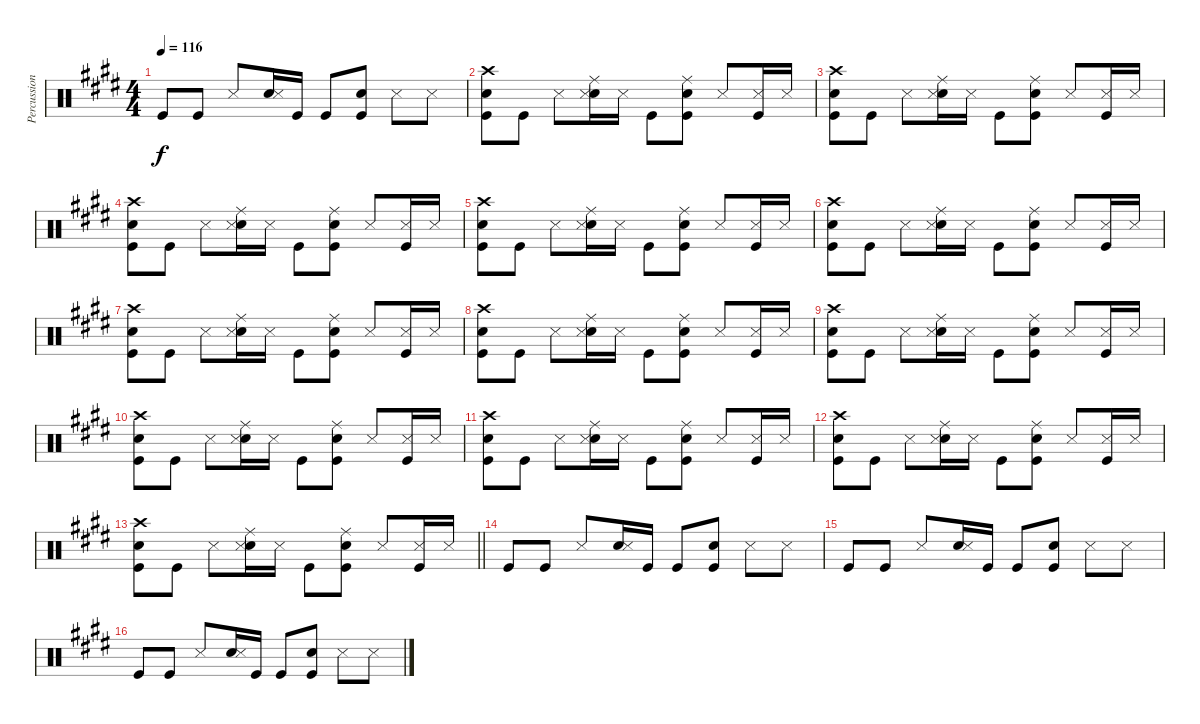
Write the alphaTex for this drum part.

\track ("Percussion" "Percussion") {instrument percussion}
\staff {score}
\articulation defaults
\ts (4 4)
\tempo 116
\clef neutral
\ks e "Kick (hit)".8{dy f} "Kick (hit)".8 "Snare (side stick) 3".8
("Electric Snare (hit)" "Snare (side stick) 3").16 "Kick (hit)".16 "Kick (hit)".8 ("Electric Snare (hit)" "Kick (hit)").8 "Snare (side stick) 3".8 "Snare (side stick) 3".8 |
("Crash high (hit)" "Electric Snare (hit)" "Kick (hit)").8 "Kick (hit)".8 "Snare (side stick) 3".8 ("Ride (middle)" "Electric Snare (hit)" "Snare (side stick) 3").16 "Snare (side stick) 3".16 "Kick (hit)".8 ("Ride (middle)" "Electric Snare (hit)" "Kick (hit)").8 "Snare (side stick) 3".8 ("Snare (side stick) 3" "Kick (hit)").16 "Snare (side stick) 3".16 |
("Crash high (hit)" "Electric Snare (hit)" "Kick (hit)").8 "Kick (hit)".8 "Snare (side stick) 3".8 ("Ride (middle)" "Electric Snare (hit)" "Snare (side stick) 3").16 "Snare (side stick) 3".16 "Kick (hit)".8 ("Ride (middle)" "Electric Snare (hit)" "Kick (hit)").8 "Snare (side stick) 3".8 ("Snare (side stick) 3" "Kick (hit)").16 "Snare (side stick) 3".16 |
("Crash high (hit)" "Electric Snare (hit)" "Kick (hit)").8 "Kick (hit)".8 "Snare (side stick) 3".8 ("Ride (middle)" "Electric Snare (hit)" "Snare (side stick) 3").16 "Snare (side stick) 3".16 "Kick (hit)".8 ("Ride (middle)" "Electric Snare (hit)" "Kick (hit)").8 "Snare (side stick) 3".8 ("Snare (side stick) 3" "Kick (hit)").16 "Snare (side stick) 3".16 |
("Crash high (hit)" "Electric Snare (hit)" "Kick (hit)").8 "Kick (hit)".8 "Snare (side stick) 3".8 ("Ride (middle)" "Electric Snare (hit)" "Snare (side stick) 3").16 "Snare (side stick) 3".16 "Kick (hit)".8 ("Ride (middle)" "Electric Snare (hit)" "Kick (hit)").8 "Snare (side stick) 3".8 ("Snare (side stick) 3" "Kick (hit)").16 "Snare (side stick) 3".16 |
("Crash high (hit)" "Electric Snare (hit)" "Kick (hit)").8 "Kick (hit)".8 "Snare (side stick) 3".8 ("Ride (middle)" "Electric Snare (hit)" "Snare (side stick) 3").16 "Snare (side stick) 3".16 "Kick (hit)".8 ("Ride (middle)" "Electric Snare (hit)" "Kick (hit)").8 "Snare (side stick) 3".8 ("Snare (side stick) 3" "Kick (hit)").16 "Snare (side stick) 3".16 |
("Crash high (hit)" "Electric Snare (hit)" "Kick (hit)").8 "Kick (hit)".8 "Snare (side stick) 3".8 ("Ride (middle)" "Electric Snare (hit)" "Snare (side stick) 3").16 "Snare (side stick) 3".16 "Kick (hit)".8 ("Ride (middle)" "Electric Snare (hit)" "Kick (hit)").8 "Snare (side stick) 3".8 ("Snare (side stick) 3" "Kick (hit)").16 "Snare (side stick) 3".16 |
("Crash high (hit)" "Electric Snare (hit)" "Kick (hit)").8 "Kick (hit)".8 "Snare (side stick) 3".8 ("Ride (middle)" "Electric Snare (hit)" "Snare (side stick) 3").16 "Snare (side stick) 3".16 "Kick (hit)".8 ("Ride (middle)" "Electric Snare (hit)" "Kick (hit)").8 "Snare (side stick) 3".8 ("Snare (side stick) 3" "Kick (hit)").16 "Snare (side stick) 3".16 |
("Crash high (hit)" "Electric Snare (hit)" "Kick (hit)").8 "Kick (hit)".8 "Snare (side stick) 3".8 ("Ride (middle)" "Electric Snare (hit)" "Snare (side stick) 3").16 "Snare (side stick) 3".16 "Kick (hit)".8 ("Ride (middle)" "Electric Snare (hit)" "Kick (hit)").8 "Snare (side stick) 3".8 ("Snare (side stick) 3" "Kick (hit)").16 "Snare (side stick) 3".16 |
("Crash high (hit)" "Electric Snare (hit)" "Kick (hit)").8 "Kick (hit)".8 "Snare (side stick) 3".8 ("Ride (middle)" "Electric Snare (hit)" "Snare (side stick) 3").16 "Snare (side stick) 3".16 "Kick (hit)".8 ("Ride (middle)" "Electric Snare (hit)" "Kick (hit)").8 "Snare (side stick) 3".8 ("Snare (side stick) 3" "Kick (hit)").16 "Snare (side stick) 3".16 |
("Crash high (hit)" "Electric Snare (hit)" "Kick (hit)").8 "Kick (hit)".8 "Snare (side stick) 3".8 ("Ride (middle)" "Electric Snare (hit)" "Snare (side stick) 3").16 "Snare (side stick) 3".16 "Kick (hit)".8 ("Ride (middle)" "Electric Snare (hit)" "Kick (hit)").8 "Snare (side stick) 3".8 ("Snare (side stick) 3" "Kick (hit)").16 "Snare (side stick) 3".16 |
("Crash high (hit)" "Electric Snare (hit)" "Kick (hit)").8 "Kick (hit)".8 "Snare (side stick) 3".8 ("Ride (middle)" "Electric Snare (hit)" "Snare (side stick) 3").16 "Snare (side stick) 3".16 "Kick (hit)".8 ("Ride (middle)" "Electric Snare (hit)" "Kick (hit)").8 "Snare (side stick) 3".8 ("Snare (side stick) 3" "Kick (hit)").16 "Snare (side stick) 3".16 |
\barLineRight lightlight
("Crash high (hit)" "Electric Snare (hit)" "Kick (hit)").8 "Kick (hit)".8 "Snare (side stick) 3".8 ("Ride (middle)" "Electric Snare (hit)" "Snare (side stick) 3").16 "Snare (side stick) 3".16 "Kick (hit)".8 ("Ride (middle)" "Electric Snare (hit)" "Kick (hit)").8 "Snare (side stick) 3".8 ("Snare (side stick) 3" "Kick (hit)").16 "Snare (side stick) 3".16 |
"Kick (hit)".8 "Kick (hit)".8 "Snare (side stick) 3".8 ("Electric Snare (hit)" "Snare (side stick) 3").16 "Kick (hit)".16 "Kick (hit)".8 ("Electric Snare (hit)" "Kick (hit)").8 "Snare (side stick) 3".8 "Snare (side stick) 3".8 |
"Kick (hit)".8 "Kick (hit)".8 "Snare (side stick) 3".8 ("Electric Snare (hit)" "Snare (side stick) 3").16 "Kick (hit)".16 "Kick (hit)".8 ("Electric Snare (hit)" "Kick (hit)").8 "Snare (side stick) 3".8 "Snare (side stick) 3".8 |
"Kick (hit)".8 "Kick (hit)".8 "Snare (side stick) 3".8 ("Electric Snare (hit)" "Snare (side stick) 3").16 "Kick (hit)".16 "Kick (hit)".8 ("Electric Snare (hit)" "Kick (hit)").8 "Snare (side stick) 3".8 "Snare (side stick) 3".8
